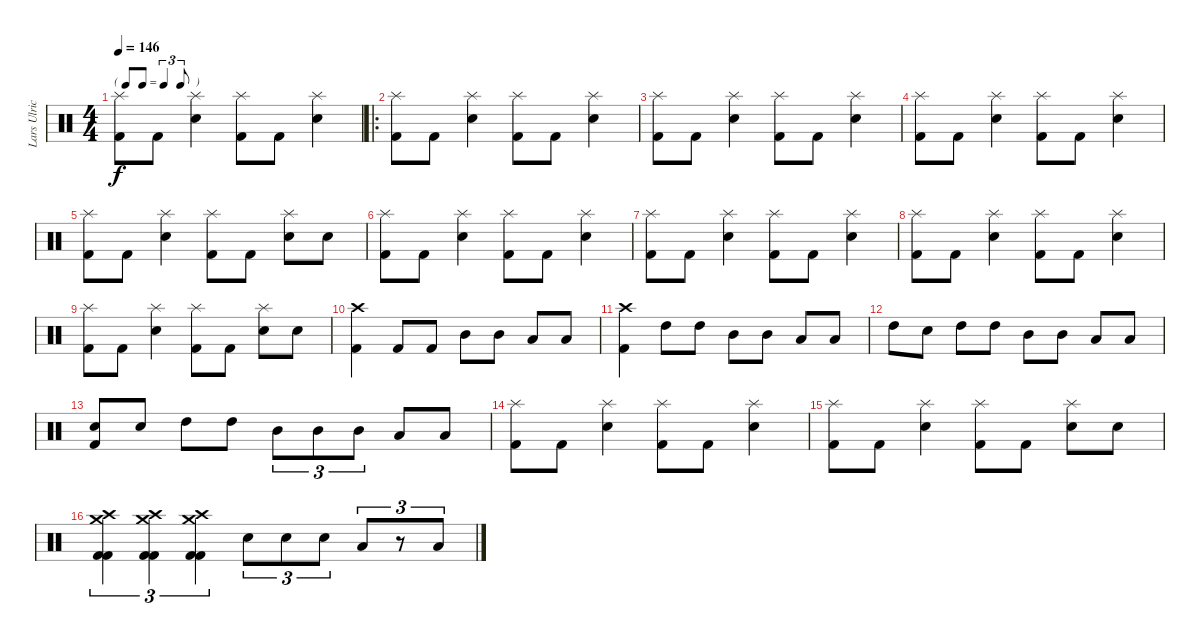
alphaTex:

\track ("Lars Ulrich" "Lars Ulric") {instrument percussion}
\staff {score}
\articulation defaults
\ts (4 4)
\tf triplet8th
\tempo 146
\clef neutral
\ks c
("Splash (hit)" "Kick (hit) 2").8{dy f} "Kick (hit) 2".8 ("Splash (hit)" "Snare (hit) 2").4 ("Splash (hit)" "Kick (hit) 2").8 "Kick (hit) 2".8 ("Splash (hit)" "Snare (hit) 2").4 |
\ro
("Splash (hit)" "Kick (hit) 2").8 "Kick (hit) 2".8 ("Splash (hit)" "Snare (hit) 2").4 ("Splash (hit)" "Kick (hit) 2").8 "Kick (hit) 2".8 ("Splash (hit)" "Snare (hit) 2").4 |
("Splash (hit)" "Kick (hit) 2").8 "Kick (hit) 2".8 ("Splash (hit)" "Snare (hit) 2").4 ("Splash (hit)" "Kick (hit) 2").8 "Kick (hit) 2".8 ("Splash (hit)" "Snare (hit) 2").4 |
("Splash (hit)" "Kick (hit) 2").8 "Kick (hit) 2".8 ("Splash (hit)" "Snare (hit) 2").4 ("Splash (hit)" "Kick (hit) 2").8 "Kick (hit) 2".8 ("Splash (hit)" "Snare (hit) 2").4 |
("Splash (hit)" "Kick (hit) 2").8 "Kick (hit) 2".8 ("Splash (hit)" "Snare (hit) 2").4 ("Splash (hit)" "Kick (hit) 2").8 "Kick (hit) 2".8 ("Splash (hit)" "Snare (hit) 2").8 "Snare (hit) 2".8 |
("Splash (hit)" "Kick (hit) 2").8 "Kick (hit) 2".8 ("Splash (hit)" "Snare (hit) 2").4 ("Splash (hit)" "Kick (hit) 2").8 "Kick (hit) 2".8 ("Splash (hit)" "Snare (hit) 2").4 |
("Splash (hit)" "Kick (hit) 2").8 "Kick (hit) 2".8 ("Splash (hit)" "Snare (hit) 2").4 ("Splash (hit)" "Kick (hit) 2").8 "Kick (hit) 2".8 ("Splash (hit)" "Snare (hit) 2").4 |
("Splash (hit)" "Kick (hit) 2").8 "Kick (hit) 2".8 ("Splash (hit)" "Snare (hit) 2").4 ("Splash (hit)" "Kick (hit) 2").8 "Kick (hit) 2".8 ("Splash (hit)" "Snare (hit) 2").4 |
("Splash (hit)" "Kick (hit) 2").8 "Kick (hit) 2".8 ("Splash (hit)" "Snare (hit) 2").4 ("Splash (hit)" "Kick (hit) 2").8 "Kick (hit) 2".8 ("Splash (hit)" "Snare (hit) 2").8 "Snare (hit) 2".8 |
("Crash high (hit)" "Kick (hit) 2").4 "Kick (hit) 2".8 "Kick (hit) 2".8 "Mid Tom (hit)".8 "Mid Tom (hit)".8 "Low Tom (hit)".8 "Low Tom (hit)".8 |
("Crash high (hit)" "Kick (hit) 2").4 "High Tom (hit)".8 "High Tom (hit)".8 "Mid Tom (hit)".8 "Mid Tom (hit)".8 "Low Tom (hit)".8 "Low Tom (hit)".8 |
"High Tom (hit)".8 "Snare (hit) 2".8 "High Tom (hit)".8 "High Tom (hit)".8 "Mid Tom (hit)".8 "Mid Tom (hit)".8 "Low Tom (hit)".8 "Low Tom (hit)".8 |
("Snare (hit) 2" "Kick (hit) 2").8 "Snare (hit) 2".8 "High Tom (hit)".8 "High Tom (hit)".8 "Mid Tom (hit)".8{tu (3 2)} "Mid Tom (hit)".8{tu (3 2)} "Mid Tom (hit)".8{tu (3 2)} "Low Tom (hit)".8 "Low Tom (hit)".8 |
("Splash (hit)" "Kick (hit) 2").8 "Kick (hit) 2".8 ("Splash (hit)" "Snare (hit) 2").4 ("Splash (hit)" "Kick (hit) 2").8 "Kick (hit) 2".8 ("Splash (hit)" "Snare (hit) 2").4 |
("Splash (hit)" "Kick (hit) 2").8 "Kick (hit) 2".8 ("Splash (hit)" "Snare (hit) 2").4 ("Splash (hit)" "Kick (hit) 2").8 "Kick (hit) 2".8 ("Splash (hit)" "Snare (hit) 2").8 "Snare (hit) 2".8 |
("Crash high (hit)" "Crash medium (hit)" "Kick (hit) 2" "Kick (hit) 2").4{tu (3 2)} ("Crash high (hit)" "Crash medium (hit)" "Kick (hit) 2" "Kick (hit) 2").4{tu (3 2)} ("Crash high (hit)" "Crash medium (hit)" "Kick (hit) 2" "Kick (hit) 2").4{tu (3 2)} "Snare (hit) 2".8{tu (3 2)} "Snare (hit) 2".8{tu (3 2)} "Snare (hit) 2".8{tu (3 2)} "Low Tom (hit)".8{tu (3 2)} r.8{tu (3 2)} "Low Tom (hit)".8{tu (3 2)}
